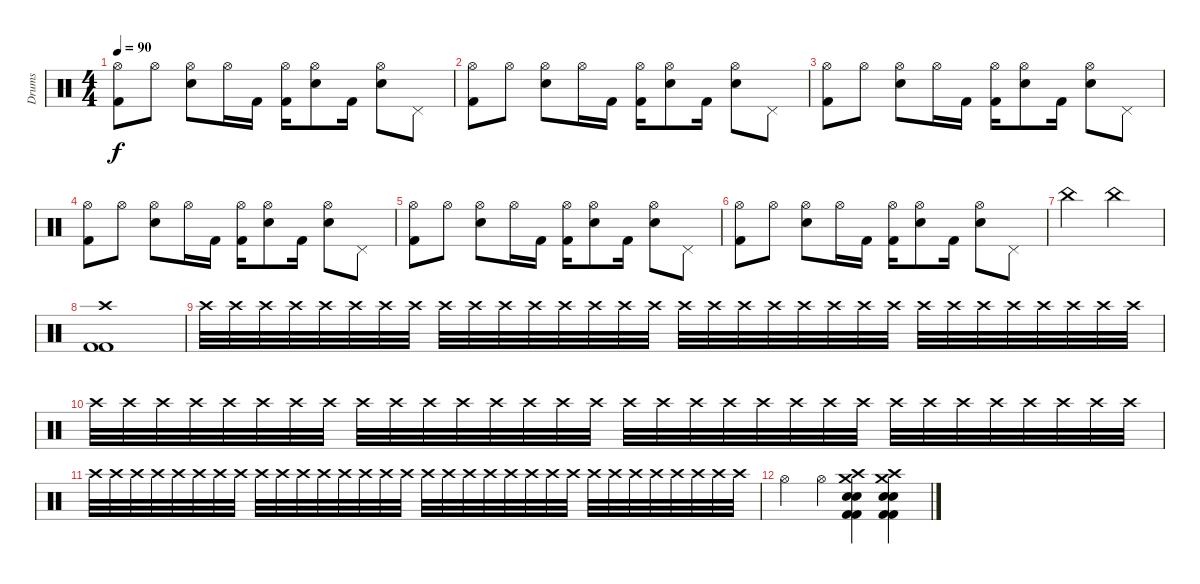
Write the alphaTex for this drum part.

\track ("Drums" "Drums") {instrument percussion}
\staff {score}
\articulation defaults
\ts (4 4)
\tempo 90
\clef neutral
\ks c
("Kick (hit) 2" "Hi-Hat (open)").8{dy f} "Hi-Hat (open)".8 ("Electric Snare (hit)" "Hi-Hat (open)").8 "Hi-Hat (open)".16 "Kick (hit) 2".16 ("Kick (hit) 2" "Hi-Hat (open)").16 ("Electric Snare (hit)" "Hi-Hat (open)").8 "Kick (hit) 2".16 ("Electric Snare (hit)" "Hi-Hat (open)").8 "Pedal Hi-Hat (hit)".8 |
("Kick (hit) 2" "Hi-Hat (open)").8 "Hi-Hat (open)".8 ("Electric Snare (hit)" "Hi-Hat (open)").8 "Hi-Hat (open)".16 "Kick (hit) 2".16 ("Kick (hit) 2" "Hi-Hat (open)").16 ("Electric Snare (hit)" "Hi-Hat (open)").8 "Kick (hit) 2".16 ("Electric Snare (hit)" "Hi-Hat (open)").8 "Pedal Hi-Hat (hit)".8 |
("Kick (hit) 2" "Hi-Hat (open)").8 "Hi-Hat (open)".8 ("Electric Snare (hit)" "Hi-Hat (open)").8 "Hi-Hat (open)".16 "Kick (hit) 2".16 ("Kick (hit) 2" "Hi-Hat (open)").16 ("Electric Snare (hit)" "Hi-Hat (open)").8 "Kick (hit) 2".16 ("Electric Snare (hit)" "Hi-Hat (open)").8 "Pedal Hi-Hat (hit)".8 |
("Kick (hit) 2" "Hi-Hat (open)").8 "Hi-Hat (open)".8 ("Electric Snare (hit)" "Hi-Hat (open)").8 "Hi-Hat (open)".16 "Kick (hit) 2".16 ("Kick (hit) 2" "Hi-Hat (open)").16 ("Electric Snare (hit)" "Hi-Hat (open)").8 "Kick (hit) 2".16 ("Electric Snare (hit)" "Hi-Hat (open)").8 "Pedal Hi-Hat (hit)".8 |
("Kick (hit) 2" "Hi-Hat (open)").8 "Hi-Hat (open)".8 ("Electric Snare (hit)" "Hi-Hat (open)").8 "Hi-Hat (open)".16 "Kick (hit) 2".16 ("Kick (hit) 2" "Hi-Hat (open)").16 ("Electric Snare (hit)" "Hi-Hat (open)").8 "Kick (hit) 2".16 ("Electric Snare (hit)" "Hi-Hat (open)").8 "Pedal Hi-Hat (hit)".8 |
("Kick (hit) 2" "Hi-Hat (open)").8 "Hi-Hat (open)".8 ("Electric Snare (hit)" "Hi-Hat (open)").8 "Hi-Hat (open)".16 "Kick (hit) 2".16 ("Kick (hit) 2" "Hi-Hat (open)").16 ("Electric Snare (hit)" "Hi-Hat (open)").8 "Kick (hit) 2".16 ("Electric Snare (hit)" "Hi-Hat (open)").8 "Pedal Hi-Hat (hit)".8 |
"China (hit)".2 "China (hit)".2 |
("Crash high (hit)" "Kick (hit) 2" "Kick (hit) 2").1 |
"Crash high (hit)".32 "Crash high (hit)".32 "Crash high (hit)".32 "Crash high (hit)".32 "Crash high (hit)".32 "Crash high (hit)".32 "Crash high (hit)".32 "Crash high (hit)".32 "Crash high (hit)".32 "Crash high (hit)".32 "Crash high (hit)".32 "Crash high (hit)".32 "Crash high (hit)".32 "Crash high (hit)".32 "Crash high (hit)".32 "Crash high (hit)".32 "Crash high (hit)".32 "Crash high (hit)".32 "Crash high (hit)".32 "Crash high (hit)".32 "Crash high (hit)".32 "Crash high (hit)".32 "Crash high (hit)".32 "Crash high (hit)".32 "Crash high (hit)".32 "Crash high (hit)".32 "Crash high (hit)".32 "Crash high (hit)".32 "Crash high (hit)".32 "Crash high (hit)".32 "Crash high (hit)".32 "Crash high (hit)".32 |
"Crash high (hit)".32 "Crash high (hit)".32 "Crash high (hit)".32 "Crash high (hit)".32 "Crash high (hit)".32 "Crash high (hit)".32 "Crash high (hit)".32 "Crash high (hit)".32 "Crash high (hit)".32 "Crash high (hit)".32 "Crash high (hit)".32 "Crash high (hit)".32 "Crash high (hit)".32 "Crash high (hit)".32 "Crash high (hit)".32 "Crash high (hit)".32 "Crash high (hit)".32 "Crash high (hit)".32 "Crash high (hit)".32 "Crash high (hit)".32 "Crash high (hit)".32 "Crash high (hit)".32 "Crash high (hit)".32 "Crash high (hit)".32 "Crash high (hit)".32 "Crash high (hit)".32 "Crash high (hit)".32 "Crash high (hit)".32 "Crash high (hit)".32 "Crash high (hit)".32 "Crash high (hit)".32 "Crash high (hit)".32 |
"Crash high (hit)".32 "Crash high (hit)".32 "Crash high (hit)".32 "Crash high (hit)".32 "Crash high (hit)".32 "Crash high (hit)".32 "Crash high (hit)".32 "Crash high (hit)".32 "Crash high (hit)".32 "Crash high (hit)".32 "Crash high (hit)".32 "Crash high (hit)".32 "Crash high (hit)".32 "Crash high (hit)".32 "Crash high (hit)".32 "Crash high (hit)".32 "Crash high (hit)".32 "Crash high (hit)".32 "Crash high (hit)".32 "Crash high (hit)".32 "Crash high (hit)".32 "Crash high (hit)".32 "Crash high (hit)".32 "Crash high (hit)".32 "Crash high (hit)".32 "Crash high (hit)".32 "Crash high (hit)".32 "Crash high (hit)".32 "Crash high (hit)".32 "Crash high (hit)".32 "Crash high (hit)".32 "Crash high (hit)".32 |
"Hi-Hat (open)".4 "Hi-Hat (open)".4 ("Crash high (hit)" "Electric Snare (hit)" "Electric Snare (hit)" "Crash medium (hit)" "Kick (hit) 2" "Kick (hit) 2").4 ("Crash high (hit)" "Electric Snare (hit)" "Electric Snare (hit)" "Crash medium (hit)" "Kick (hit) 2" "Kick (hit) 2").4
